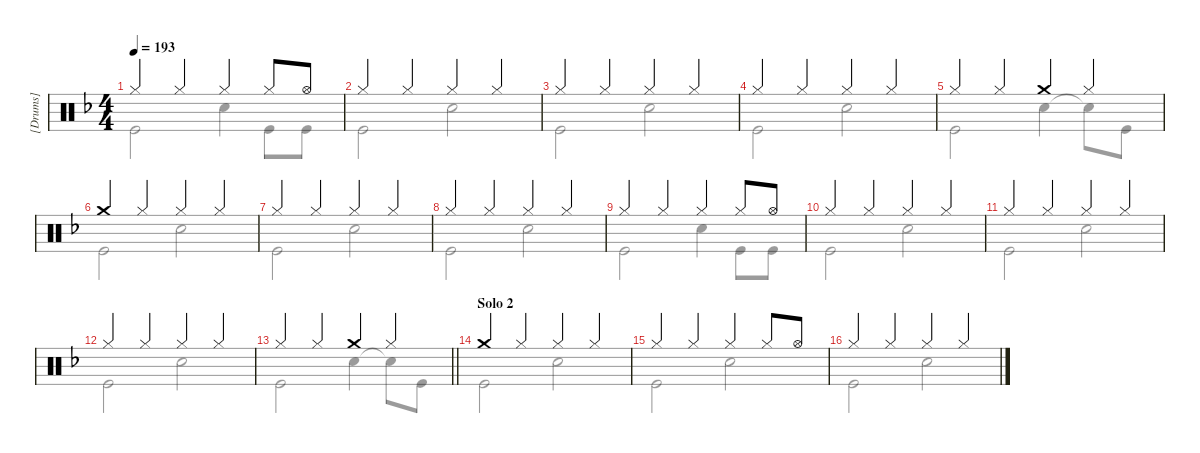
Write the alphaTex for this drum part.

\hideDynamics
\bracketExtendMode groupsimilarinstruments
\firstSystemTrackNameMode fullname
\otherSystemsTrackNameMode fullname
\otherSystemsTrackNameOrientation horizontal
\track ("[Drums]" "Drums") {instrument percussion}
\staff {score}
\articulation defaults
\voice
\ts (4 4)
\tempo 193
\clef neutral
\ks f "Hi-Hat (closed)".4{dy ff} "Hi-Hat (closed)".4 "Hi-Hat (closed)".4 "Hi-Hat (closed)".8 "Hi-Hat (open)".8
|
"Hi-Hat (closed)".4 "Hi-Hat (closed)".4 "Hi-Hat (closed)".4 "Hi-Hat (closed)".4 |
"Hi-Hat (closed)".4 "Hi-Hat (closed)".4 "Hi-Hat (closed)".4 "Hi-Hat (closed)".4 |
"Hi-Hat (closed)".4 "Hi-Hat (closed)".4 "Hi-Hat (closed)".4 "Hi-Hat (closed)".4 |
"Hi-Hat (closed)".4 "Hi-Hat (closed)".4 "Crash medium (hit)".4 "Hi-Hat (closed)".4 |
"Crash medium (hit)".4 "Hi-Hat (closed)".4 "Hi-Hat (closed)".4 "Hi-Hat (closed)".4 |
"Hi-Hat (closed)".4 "Hi-Hat (closed)".4 "Hi-Hat (closed)".4 "Hi-Hat (closed)".4 |
"Hi-Hat (closed)".4 "Hi-Hat (closed)".4 "Hi-Hat (closed)".4 "Hi-Hat (closed)".4 |
"Hi-Hat (closed)".4 "Hi-Hat (closed)".4 "Hi-Hat (closed)".4 "Hi-Hat (closed)".8 "Hi-Hat (open)".8 |
"Hi-Hat (closed)".4 "Hi-Hat (closed)".4 "Hi-Hat (closed)".4 "Hi-Hat (closed)".4 |
"Hi-Hat (closed)".4 "Hi-Hat (closed)".4 "Hi-Hat (closed)".4 "Hi-Hat (closed)".4 |
"Hi-Hat (closed)".4 "Hi-Hat (closed)".4 "Hi-Hat (closed)".4 "Hi-Hat (closed)".4 |
\barLineRight lightlight "Hi-Hat (closed)".4 "Hi-Hat (closed)".4 "Crash medium (hit)".4 "Hi-Hat (closed)".4
|
\section ("" "Solo 2")
"Crash medium (hit)".4 "Hi-Hat (closed)".4 "Hi-Hat (closed)".4 "Hi-Hat (closed)".4 |
"Hi-Hat (closed)".4 "Hi-Hat (closed)".4 "Hi-Hat (closed)".4 "Hi-Hat (closed)".8 "Hi-Hat (open)".8 |
"Hi-Hat (closed)".4 "Hi-Hat (closed)".4 "Hi-Hat (closed)".4 "Hi-Hat (closed)".4
\voice
\clef neutral
\ottava regular
\simile none
\ks f "Kick (hit)".2{dy f} "Snare (hit) 2".4 "Kick (hit)".8 "Kick (hit)".8
|
"Kick (hit)".2 "Snare (hit) 2".2 |
"Kick (hit)".2 "Snare (hit) 2".2 |
"Kick (hit)".2 "Snare (hit) 2".2 |
"Kick (hit)".2 "Snare (hit) 2".4 "Snare (hit) 2"{t}.8 "Kick (hit)".8 |
"Kick (hit)".2 "Snare (hit) 2".2 |
"Kick (hit)".2 "Snare (hit) 2".2 |
"Kick (hit)".2 "Snare (hit) 2".2 |
"Kick (hit)".2 "Snare (hit) 2".4 "Kick (hit)".8 "Kick (hit)".8 |
"Kick (hit)".2 "Snare (hit) 2".2 |
"Kick (hit)".2 "Snare (hit) 2".2 |
"Kick (hit)".2 "Snare (hit) 2".2 |
\barLineRight lightlight "Kick (hit)".2 "Snare (hit) 2".4 "Snare (hit) 2"{t}.8 "Kick (hit)".8
|
"Kick (hit)".2 "Snare (hit) 2".2 |
"Kick (hit)".2 "Snare (hit) 2".2 |
"Kick (hit)".2 "Snare (hit) 2".2
